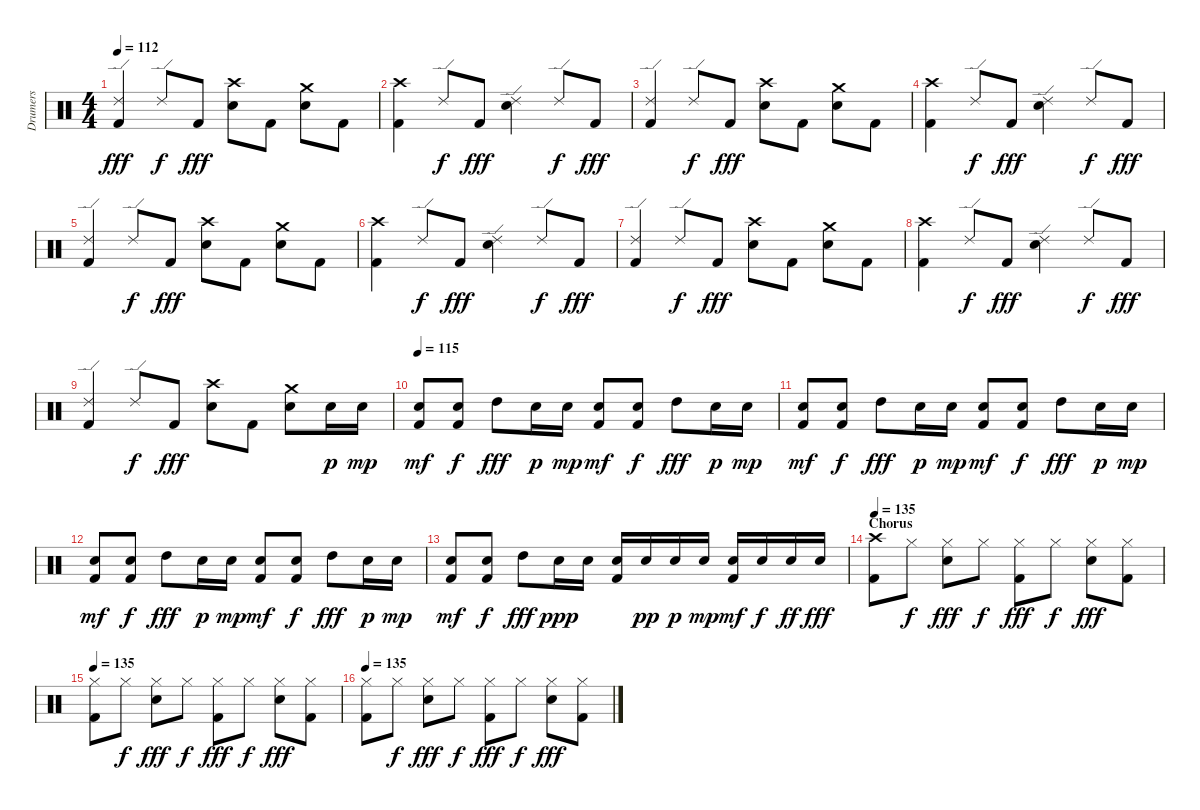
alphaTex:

\track ("Drumers" "Drumers") {instrument percussion}
\staff {score}
\articulation defaults
\ts (4 4)
\tempo 112
\clef neutral
\ks c
("Ride (edge) 2" "Kick (hit) 2").4{dy fff} "Ride (edge) 2".8{dy f} "Kick (hit) 2".8{dy fff} ("Crash high (hit)" "Electric Snare (hit)").8 "Kick (hit) 2".8 ("Crash medium (hit)" "Electric Snare (hit)").8 "Kick (hit) 2".8 |
("Crash high (hit)" "Kick (hit) 2").4 "Ride (edge) 2".8{dy f} "Kick (hit) 2".8{dy fff} ("Ride (edge) 2" "Electric Snare (hit)").4 "Ride (edge) 2".8{dy f} "Kick (hit) 2".8{dy fff} |
("Ride (edge) 2" "Kick (hit) 2").4 "Ride (edge) 2".8{dy f} "Kick (hit) 2".8{dy fff} ("Crash high (hit)" "Electric Snare (hit)").8 "Kick (hit) 2".8 ("Crash medium (hit)" "Electric Snare (hit)").8 "Kick (hit) 2".8 |
("Crash high (hit)" "Kick (hit) 2").4 "Ride (edge) 2".8{dy f} "Kick (hit) 2".8{dy fff} ("Ride (edge) 2" "Electric Snare (hit)").4 "Ride (edge) 2".8{dy f} "Kick (hit) 2".8{dy fff} |
("Ride (edge) 2" "Kick (hit) 2").4 "Ride (edge) 2".8{dy f} "Kick (hit) 2".8{dy fff} ("Crash high (hit)" "Electric Snare (hit)").8 "Kick (hit) 2".8 ("Crash medium (hit)" "Electric Snare (hit)").8 "Kick (hit) 2".8 |
("Crash high (hit)" "Kick (hit) 2").4 "Ride (edge) 2".8{dy f} "Kick (hit) 2".8{dy fff} ("Ride (edge) 2" "Electric Snare (hit)").4 "Ride (edge) 2".8{dy f} "Kick (hit) 2".8{dy fff} |
("Ride (edge) 2" "Kick (hit) 2").4 "Ride (edge) 2".8{dy f} "Kick (hit) 2".8{dy fff} ("Crash high (hit)" "Electric Snare (hit)").8 "Kick (hit) 2".8 ("Crash medium (hit)" "Electric Snare (hit)").8 "Kick (hit) 2".8 |
("Crash high (hit)" "Kick (hit) 2").4 "Ride (edge) 2".8{dy f} "Kick (hit) 2".8{dy fff} ("Ride (edge) 2" "Electric Snare (hit)").4 "Ride (edge) 2".8{dy f} "Kick (hit) 2".8{dy fff} |
("Ride (edge) 2" "Kick (hit) 2").4 "Ride (edge) 2".8{dy f} "Kick (hit) 2".8{dy fff} ("Crash high (hit)" "Electric Snare (hit)").8 "Kick (hit) 2".8 ("Crash medium (hit)" "Electric Snare (hit)").8 "Electric Snare (hit)".16{dy p} "Electric Snare (hit)".16{dy mp} |
\tempo 115
("Electric Snare (hit)" "Kick (hit) 2").8{dy mf} ("Electric Snare (hit)" "Kick (hit) 2").8{dy f} "High Tom (hit)".8{dy fff} "Electric Snare (hit)".16{dy p} "Electric Snare (hit)".16{dy mp} ("Electric Snare (hit)" "Kick (hit) 2").8{dy mf} ("Electric Snare (hit)" "Kick (hit) 2").8{dy f} "High Tom (hit)".8{dy fff} "Electric Snare (hit)".16{dy p} "Electric Snare (hit)".16{dy mp} |
("Electric Snare (hit)" "Kick (hit) 2").8{dy mf} ("Electric Snare (hit)" "Kick (hit) 2").8{dy f} "High Tom (hit)".8{dy fff} "Electric Snare (hit)".16{dy p} "Electric Snare (hit)".16{dy mp} ("Electric Snare (hit)" "Kick (hit) 2").8{dy mf} ("Electric Snare (hit)" "Kick (hit) 2").8{dy f} "High Tom (hit)".8{dy fff} "Electric Snare (hit)".16{dy p} "Electric Snare (hit)".16{dy mp} |
("Electric Snare (hit)" "Kick (hit) 2").8{dy mf} ("Electric Snare (hit)" "Kick (hit) 2").8{dy f} "High Tom (hit)".8{dy fff} "Electric Snare (hit)".16{dy p} "Electric Snare (hit)".16{dy mp} ("Electric Snare (hit)" "Kick (hit) 2").8{dy mf} ("Electric Snare (hit)" "Kick (hit) 2").8{dy f} "High Tom (hit)".8{dy fff} "Electric Snare (hit)".16{dy p} "Electric Snare (hit)".16{dy mp} |
("Electric Snare (hit)" "Kick (hit) 2").8{dy mf} ("Electric Snare (hit)" "Kick (hit) 2").8{dy f} "High Tom (hit)".8{dy fff} "Electric Snare (hit)".16{dy ppp} "Electric Snare (hit)".16 ("Electric Snare (hit)" "Kick (hit) 2").16 "Electric Snare (hit)".16{dy pp} "Electric Snare (hit)".16{dy p} "Electric Snare (hit)".16{dy mp} ("Electric Snare (hit)" "Kick (hit) 2").16{dy mf} "Electric Snare (hit)".16{dy f} "Electric Snare (hit)".16{dy ff} "Electric Snare (hit)".16{dy fff} |
\section ("" "Chorus")
\tempo 135
("Crash high (hit)" "Kick (hit) 2").8 "Hi-Hat (closed)".8{dy f} ("Hi-Hat (closed)" "Electric Snare (hit)").8{dy fff} "Hi-Hat (closed)".8{dy f} ("Hi-Hat (closed)" "Kick (hit) 2").8{dy fff} "Hi-Hat (closed)".8{dy f} ("Hi-Hat (closed)" "Electric Snare (hit)").8{dy fff} ("Hi-Hat (closed)" "Kick (hit) 2").8 |
\tempo 135
("Hi-Hat (closed)" "Kick (hit) 2").8 "Hi-Hat (closed)".8{dy f} ("Hi-Hat (closed)" "Electric Snare (hit)").8{dy fff} "Hi-Hat (closed)".8{dy f} ("Hi-Hat (closed)" "Kick (hit) 2").8{dy fff} "Hi-Hat (closed)".8{dy f} ("Hi-Hat (closed)" "Electric Snare (hit)").8{dy fff} ("Hi-Hat (closed)" "Kick (hit) 2").8 |
\tempo 135
("Hi-Hat (closed)" "Kick (hit) 2").8 "Hi-Hat (closed)".8{dy f} ("Hi-Hat (closed)" "Electric Snare (hit)").8{dy fff} "Hi-Hat (closed)".8{dy f} ("Hi-Hat (closed)" "Kick (hit) 2").8{dy fff} "Hi-Hat (closed)".8{dy f} ("Hi-Hat (closed)" "Electric Snare (hit)").8{dy fff} ("Hi-Hat (closed)" "Kick (hit) 2").8
